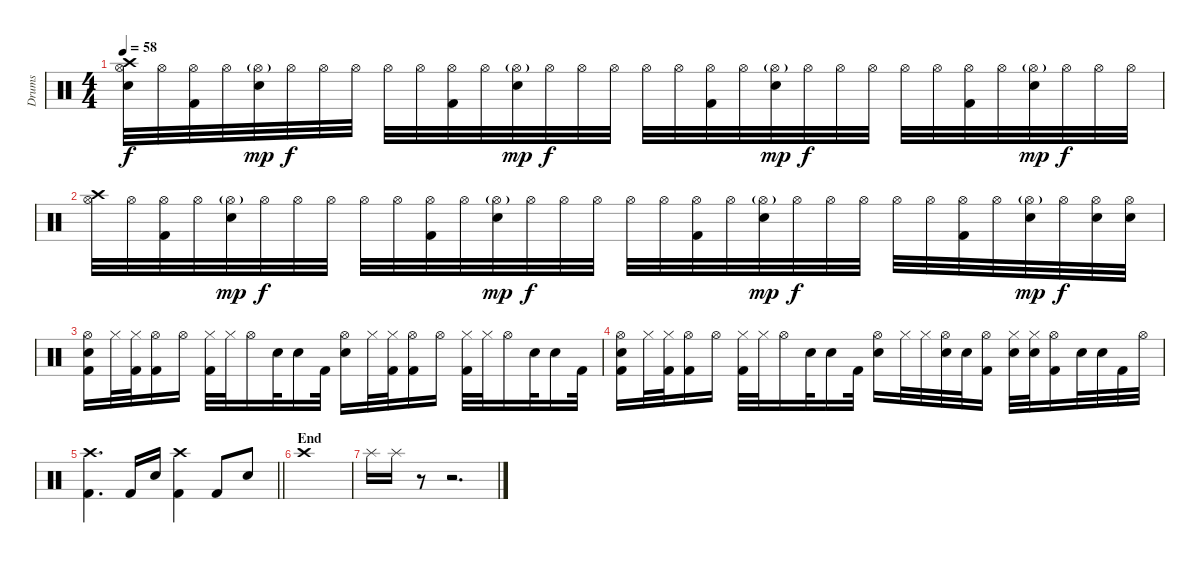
\track ("Drums" "Drums") {instrument percussion}
\staff {score}
\articulation defaults
\ts (4 4)
\tempo 58
\clef neutral
\ks c
("Crash high (hit)" "Electric Snare (hit)" "Hi-Hat (open)").32{dy f} "Hi-Hat (open)".32 ("Hi-Hat (open)" "Kick (hit) 2").32 "Hi-Hat (open)".32 ("Electric Snare (hit)" "Hi-Hat (open)"{g}).32{dy mp} "Hi-Hat (open)".32{dy f} "Hi-Hat (open)".32 "Hi-Hat (open)".32 "Hi-Hat (open)".32 "Hi-Hat (open)".32 ("Hi-Hat (open)" "Kick (hit) 2").32 "Hi-Hat (open)".32 ("Electric Snare (hit)" "Hi-Hat (open)"{g}).32{dy mp} "Hi-Hat (open)".32{dy f} "Hi-Hat (open)".32 "Hi-Hat (open)".32 "Hi-Hat (open)".32 "Hi-Hat (open)".32 ("Hi-Hat (open)" "Kick (hit) 2").32 "Hi-Hat (open)".32 ("Electric Snare (hit)" "Hi-Hat (open)"{g}).32{dy mp} "Hi-Hat (open)".32{dy f} "Hi-Hat (open)".32 "Hi-Hat (open)".32 "Hi-Hat (open)".32 "Hi-Hat (open)".32 ("Hi-Hat (open)" "Kick (hit) 2").32 "Hi-Hat (open)".32 ("Electric Snare (hit)" "Hi-Hat (open)"{g}).32{dy mp} "Hi-Hat (open)".32{dy f} "Hi-Hat (open)".32 "Hi-Hat (open)".32 |
("Crash high (hit)" "Hi-Hat (open)").32 "Hi-Hat (open)".32 ("Hi-Hat (open)" "Kick (hit) 2").32 "Hi-Hat (open)".32 ("Electric Snare (hit)" "Hi-Hat (open)"{g}).32{dy mp} "Hi-Hat (open)".32{dy f} "Hi-Hat (open)".32 "Hi-Hat (open)".32 "Hi-Hat (open)".32 "Hi-Hat (open)".32 ("Hi-Hat (open)" "Kick (hit) 2").32 "Hi-Hat (open)".32 ("Electric Snare (hit)" "Hi-Hat (open)"{g}).32{dy mp} "Hi-Hat (open)".32{dy f} "Hi-Hat (open)".32 "Hi-Hat (open)".32 "Hi-Hat (open)".32 "Hi-Hat (open)".32 ("Hi-Hat (open)" "Kick (hit) 2").32 "Hi-Hat (open)".32 ("Electric Snare (hit)" "Hi-Hat (open)"{g}).32{dy mp} "Hi-Hat (open)".32{dy f} "Hi-Hat (open)".32 "Hi-Hat (open)".32 "Hi-Hat (open)".32 "Hi-Hat (open)".32 ("Hi-Hat (open)" "Kick (hit) 2").32 "Hi-Hat (open)".32 ("Electric Snare (hit)" "Hi-Hat (open)"{g}).32{dy mp} "Hi-Hat (open)".32{dy f} ("Electric Snare (hit)" "Hi-Hat (open)").32 ("Electric Snare (hit)" "Hi-Hat (open)").32 |
("Hi-Hat (open)" "Electric Snare (hit)" "Kick (hit) 2").16 "Hi-Hat (closed)".32 ("Hi-Hat (closed)" "Kick (hit) 2").32 ("Hi-Hat (open)" "Kick (hit) 2").16 "Hi-Hat (open)".16 ("Hi-Hat (closed)" "Kick (hit) 2").32 "Hi-Hat (closed)".32 "Hi-Hat (open)".16 "Electric Snare (hit)".32 "Electric Snare (hit)".16 "Kick (hit) 2".32 ("Hi-Hat (open)" "Electric Snare (hit)").16 "Hi-Hat (closed)".32 ("Hi-Hat (closed)" "Kick (hit) 2").32 ("Hi-Hat (open)" "Kick (hit) 2").16 "Hi-Hat (open)".16 ("Hi-Hat (closed)" "Kick (hit) 2").32 "Hi-Hat (closed)".32 "Hi-Hat (open)".16 "Electric Snare (hit)".32 "Electric Snare (hit)".16 "Kick (hit) 2".32 |
("Hi-Hat (open)" "Electric Snare (hit)" "Kick (hit) 2").16 "Hi-Hat (closed)".32 ("Hi-Hat (closed)" "Kick (hit) 2").32 ("Hi-Hat (open)" "Kick (hit) 2").16 "Hi-Hat (open)".16 ("Hi-Hat (closed)" "Kick (hit) 2").32 "Hi-Hat (closed)".32 "Hi-Hat (open)".16 "Electric Snare (hit)".32 "Electric Snare (hit)".16 "Kick (hit) 2".32 ("Hi-Hat (open)" "Electric Snare (hit)").16 "Hi-Hat (closed)".32 "Hi-Hat (closed)".32 ("Hi-Hat (open)" "Electric Snare (hit)").32 "Electric Snare (hit)".32 ("Hi-Hat (open)" "Kick (hit) 2").16 ("Hi-Hat (closed)" "Electric Snare (hit)").32 ("Hi-Hat (closed)" "Electric Snare (hit)").32 ("Hi-Hat (open)" "Kick (hit) 2").16 "Electric Snare (hit)".32 "Electric Snare (hit)".32 "Kick (hit) 2".32 "Hi-Hat (open)".32 |
\barLineRight lightlight
("Crash high (hit)" "Kick (hit) 2").4{d} "Kick (hit) 2".16 "Electric Snare (hit)".16 ("Crash high (hit)" "Kick (hit) 2").4 "Kick (hit) 2".8 "Electric Snare (hit)".8 |
\section ("" "End")
"Crash high (hit)".1 |
"Splash (hit)".16 "Splash (hit)".16 r.8 r.2{d}
